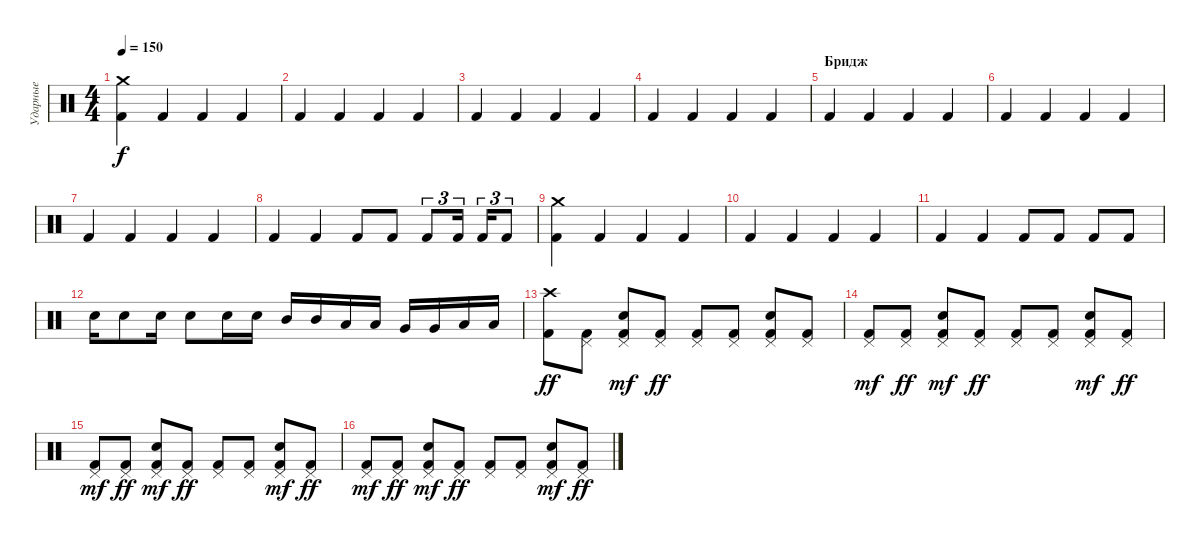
\track ("Ударные" "Ударные") {instrument percussion}
\staff {score}
\articulation defaults
\ts (4 4)
\tempo 150
\clef neutral
\ks c
("Crash medium (hit)" "Kick (hit) 2").4{dy f} "Kick (hit) 2".4 "Kick (hit) 2".4 "Kick (hit) 2".4 |
"Kick (hit) 2".4 "Kick (hit) 2".4 "Kick (hit) 2".4 "Kick (hit) 2".4 |
"Kick (hit) 2".4 "Kick (hit) 2".4 "Kick (hit) 2".4 "Kick (hit) 2".4 |
"Kick (hit) 2".4 "Kick (hit) 2".4 "Kick (hit) 2".4 "Kick (hit) 2".4 |
\section ("" "Бридж")
"Kick (hit) 2".4 "Kick (hit) 2".4 "Kick (hit) 2".4 "Kick (hit) 2".4 |
"Kick (hit) 2".4 "Kick (hit) 2".4 "Kick (hit) 2".4 "Kick (hit) 2".4 |
"Kick (hit) 2".4 "Kick (hit) 2".4 "Kick (hit) 2".4 "Kick (hit) 2".4 |
"Kick (hit) 2".4 "Kick (hit) 2".4 "Kick (hit) 2".8 "Kick (hit) 2".8 "Kick (hit) 2".8{tu (3 2)} "Kick (hit) 2".16{tu (3 2)} "Kick (hit) 2".16{tu (3 2)} "Kick (hit) 2".8{tu (3 2)} |
("Kick (hit) 2" "Crash medium (hit)").4 "Kick (hit) 2".4 "Kick (hit) 2".4 "Kick (hit) 2".4 |
"Kick (hit) 2".4 "Kick (hit) 2".4 "Kick (hit) 2".4 "Kick (hit) 2".4 |
"Kick (hit) 2".4 "Kick (hit) 2".4 "Kick (hit) 2".8 "Kick (hit) 2".8 "Kick (hit) 2".8 "Kick (hit) 2".8 |
"Electric Snare (hit)".16 "Electric Snare (hit)".8 "Electric Snare (hit)".16 "Electric Snare (hit)".8 "Electric Snare (hit)".16 "Electric Snare (hit)".16 "Mid Tom (hit)".16 "Mid Tom (hit)".16 "Low Tom (hit)".16 "Low Tom (hit)".16 "Very Low Tom (hit)".16 "Very Low Tom (hit)".16 "Low Floor Tom (hit)".16 "Low Floor Tom (hit)".16 |
("Crash high (hit)" "Kick (hit) 2").8{dy ff} ("Kick (hit) 2" "Pedal Hi-Hat (hit)").8 ("Kick (hit) 2" "Electric Snare (hit)" "Pedal Hi-Hat (hit)").8{dy mf} ("Kick (hit) 2" "Pedal Hi-Hat (hit)").8{dy ff} ("Pedal Hi-Hat (hit)" "Kick (hit) 2").8 ("Kick (hit) 2" "Pedal Hi-Hat (hit)").8 ("Kick (hit) 2" "Pedal Hi-Hat (hit)" "Electric Snare (hit)").8 ("Kick (hit) 2" "Pedal Hi-Hat (hit)").8 |
("Kick (hit) 2" "Pedal Hi-Hat (hit)").8{dy mf} ("Kick (hit) 2" "Pedal Hi-Hat (hit)").8{dy ff} ("Electric Snare (hit)" "Kick (hit) 2" "Pedal Hi-Hat (hit)").8{dy mf} ("Kick (hit) 2" "Pedal Hi-Hat (hit)").8{dy ff} ("Pedal Hi-Hat (hit)" "Kick (hit) 2").8 ("Kick (hit) 2" "Pedal Hi-Hat (hit)").8 ("Electric Snare (hit)" "Kick (hit) 2" "Pedal Hi-Hat (hit)").8{dy mf} ("Kick (hit) 2" "Pedal Hi-Hat (hit)").8{dy ff} |
("Kick (hit) 2" "Pedal Hi-Hat (hit)").8{dy mf} ("Kick (hit) 2" "Pedal Hi-Hat (hit)").8{dy ff} ("Electric Snare (hit)" "Kick (hit) 2" "Pedal Hi-Hat (hit)").8{dy mf} ("Kick (hit) 2" "Pedal Hi-Hat (hit)").8{dy ff} ("Pedal Hi-Hat (hit)" "Kick (hit) 2").8 ("Kick (hit) 2" "Pedal Hi-Hat (hit)").8 ("Electric Snare (hit)" "Kick (hit) 2" "Pedal Hi-Hat (hit)").8{dy mf} ("Kick (hit) 2" "Pedal Hi-Hat (hit)").8{dy ff} |
("Kick (hit) 2" "Pedal Hi-Hat (hit)").8{dy mf} ("Kick (hit) 2" "Pedal Hi-Hat (hit)").8{dy ff} ("Electric Snare (hit)" "Kick (hit) 2" "Pedal Hi-Hat (hit)").8{dy mf} ("Kick (hit) 2" "Pedal Hi-Hat (hit)").8{dy ff} ("Pedal Hi-Hat (hit)" "Kick (hit) 2").8 ("Kick (hit) 2" "Pedal Hi-Hat (hit)").8 ("Electric Snare (hit)" "Kick (hit) 2" "Pedal Hi-Hat (hit)").8{dy mf} ("Kick (hit) 2" "Pedal Hi-Hat (hit)").8{dy ff}
